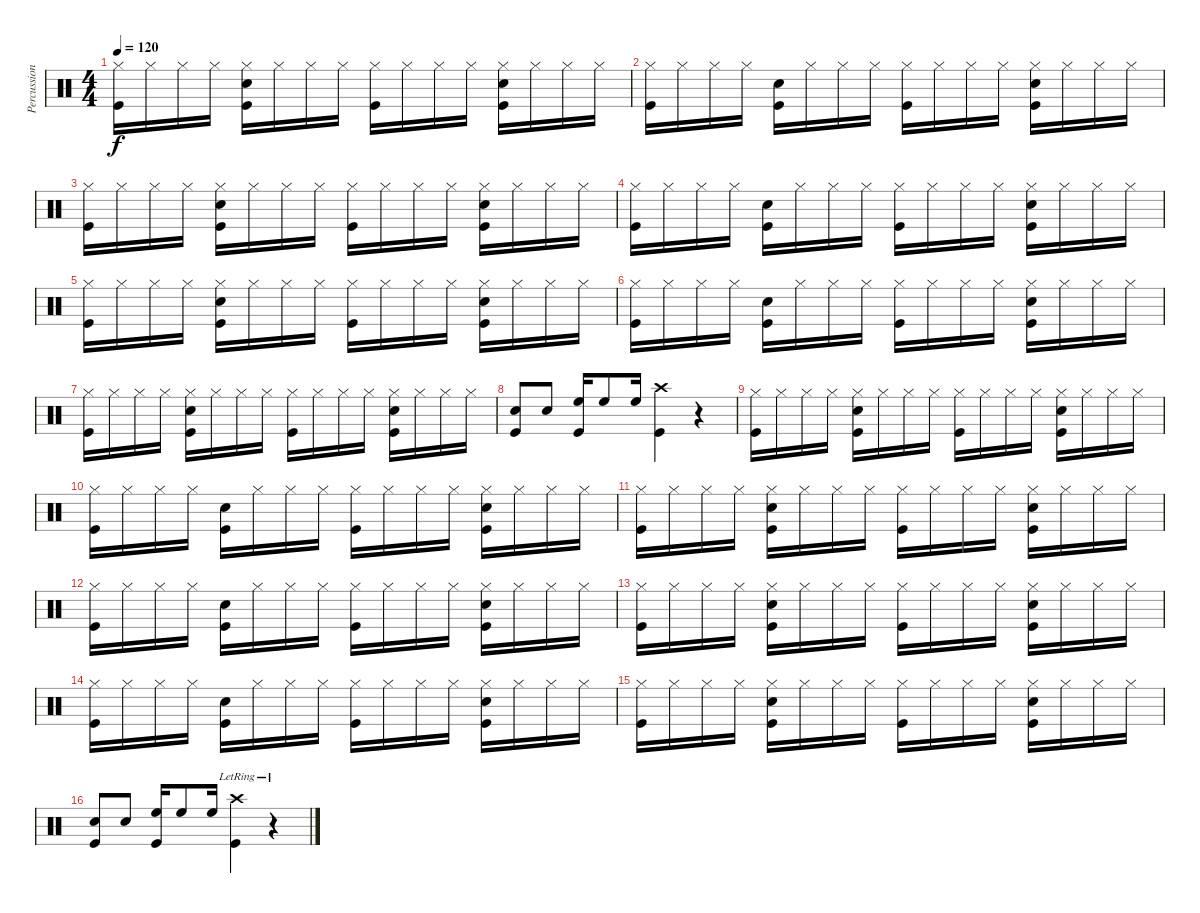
\track ("Percussion" "Percussion") {instrument percussion}
\staff {score}
\articulation defaults
\ts (4 4)
\tempo 120
\clef neutral
\ks c
("Hi-Hat (closed)" "Kick (hit)").16{dy f} "Hi-Hat (closed)".16 "Hi-Hat (closed)".16 "Hi-Hat (closed)".16 ("Hi-Hat (closed)" "Snare (hit) 2" "Kick (hit)").16 "Hi-Hat (closed)".16 "Hi-Hat (closed)".16 "Hi-Hat (closed)".16 ("Hi-Hat (closed)" "Kick (hit)").16 "Hi-Hat (closed)".16 "Hi-Hat (closed)".16 "Hi-Hat (closed)".16 ("Hi-Hat (closed)" "Snare (hit) 2" "Kick (hit)").16 "Hi-Hat (closed)".16 "Hi-Hat (closed)".16 "Hi-Hat (closed)".16 |
("Hi-Hat (closed)" "Kick (hit)").16 "Hi-Hat (closed)".16 "Hi-Hat (closed)".16 "Hi-Hat (closed)".16 ("Snare (hit) 2" "Kick (hit)").16 "Hi-Hat (closed)".16 "Hi-Hat (closed)".16 "Hi-Hat (closed)".16 ("Hi-Hat (closed)" "Kick (hit)").16 "Hi-Hat (closed)".16 "Hi-Hat (closed)".16 "Hi-Hat (closed)".16 ("Hi-Hat (closed)" "Snare (hit) 2" "Kick (hit)").16 "Hi-Hat (closed)".16 "Hi-Hat (closed)".16 "Hi-Hat (closed)".16 |
("Hi-Hat (closed)" "Kick (hit)").16 "Hi-Hat (closed)".16 "Hi-Hat (closed)".16 "Hi-Hat (closed)".16 ("Hi-Hat (closed)" "Snare (hit) 2" "Kick (hit)").16 "Hi-Hat (closed)".16 "Hi-Hat (closed)".16 "Hi-Hat (closed)".16 ("Hi-Hat (closed)" "Kick (hit)").16 "Hi-Hat (closed)".16 "Hi-Hat (closed)".16 "Hi-Hat (closed)".16 ("Hi-Hat (closed)" "Snare (hit) 2" "Kick (hit)").16 "Hi-Hat (closed)".16 "Hi-Hat (closed)".16 "Hi-Hat (closed)".16 |
("Hi-Hat (closed)" "Kick (hit)").16 "Hi-Hat (closed)".16 "Hi-Hat (closed)".16 "Hi-Hat (closed)".16 ("Snare (hit) 2" "Kick (hit)").16 "Hi-Hat (closed)".16 "Hi-Hat (closed)".16 "Hi-Hat (closed)".16 ("Hi-Hat (closed)" "Kick (hit)").16 "Hi-Hat (closed)".16 "Hi-Hat (closed)".16 "Hi-Hat (closed)".16 ("Hi-Hat (closed)" "Snare (hit) 2" "Kick (hit)").16 "Hi-Hat (closed)".16 "Hi-Hat (closed)".16 "Hi-Hat (closed)".16 |
("Hi-Hat (closed)" "Kick (hit)").16 "Hi-Hat (closed)".16 "Hi-Hat (closed)".16 "Hi-Hat (closed)".16 ("Hi-Hat (closed)" "Snare (hit) 2" "Kick (hit)").16 "Hi-Hat (closed)".16 "Hi-Hat (closed)".16 "Hi-Hat (closed)".16 ("Hi-Hat (closed)" "Kick (hit)").16 "Hi-Hat (closed)".16 "Hi-Hat (closed)".16 "Hi-Hat (closed)".16 ("Hi-Hat (closed)" "Snare (hit) 2" "Kick (hit)").16 "Hi-Hat (closed)".16 "Hi-Hat (closed)".16 "Hi-Hat (closed)".16 |
("Hi-Hat (closed)" "Kick (hit)").16 "Hi-Hat (closed)".16 "Hi-Hat (closed)".16 "Hi-Hat (closed)".16 ("Snare (hit) 2" "Kick (hit)").16 "Hi-Hat (closed)".16 "Hi-Hat (closed)".16 "Hi-Hat (closed)".16 ("Hi-Hat (closed)" "Kick (hit)").16 "Hi-Hat (closed)".16 "Hi-Hat (closed)".16 "Hi-Hat (closed)".16 ("Hi-Hat (closed)" "Snare (hit) 2" "Kick (hit)").16 "Hi-Hat (closed)".16 "Hi-Hat (closed)".16 "Hi-Hat (closed)".16 |
("Hi-Hat (closed)" "Kick (hit)").16 "Hi-Hat (closed)".16 "Hi-Hat (closed)".16 "Hi-Hat (closed)".16 ("Hi-Hat (closed)" "Snare (hit) 2" "Kick (hit)").16 "Hi-Hat (closed)".16 "Hi-Hat (closed)".16 "Hi-Hat (closed)".16 ("Hi-Hat (closed)" "Kick (hit)").16 "Hi-Hat (closed)".16 "Hi-Hat (closed)".16 "Hi-Hat (closed)".16 ("Hi-Hat (closed)" "Snare (hit) 2" "Kick (hit)").16 "Hi-Hat (closed)".16 "Hi-Hat (closed)".16 "Hi-Hat (closed)".16 |
("Snare (hit) 2" "Kick (hit)").8 "Snare (hit) 2".8 ("High Floor Tom (hit)" "Kick (hit)").16 "High Floor Tom (hit)".8 "High Floor Tom (hit)".16 ("Crash high (hit)" "Kick (hit)").4 r.4 |
("Hi-Hat (closed)" "Kick (hit)").16 "Hi-Hat (closed)".16 "Hi-Hat (closed)".16 "Hi-Hat (closed)".16 ("Hi-Hat (closed)" "Snare (hit) 2" "Kick (hit)").16 "Hi-Hat (closed)".16 "Hi-Hat (closed)".16 "Hi-Hat (closed)".16 ("Hi-Hat (closed)" "Kick (hit)").16 "Hi-Hat (closed)".16 "Hi-Hat (closed)".16 "Hi-Hat (closed)".16 ("Hi-Hat (closed)" "Snare (hit) 2" "Kick (hit)").16 "Hi-Hat (closed)".16 "Hi-Hat (closed)".16 "Hi-Hat (closed)".16 |
("Hi-Hat (closed)" "Kick (hit)").16 "Hi-Hat (closed)".16 "Hi-Hat (closed)".16 "Hi-Hat (closed)".16 ("Snare (hit) 2" "Kick (hit)").16 "Hi-Hat (closed)".16 "Hi-Hat (closed)".16 "Hi-Hat (closed)".16 ("Hi-Hat (closed)" "Kick (hit)").16 "Hi-Hat (closed)".16 "Hi-Hat (closed)".16 "Hi-Hat (closed)".16 ("Hi-Hat (closed)" "Snare (hit) 2" "Kick (hit)").16 "Hi-Hat (closed)".16 "Hi-Hat (closed)".16 "Hi-Hat (closed)".16 |
("Hi-Hat (closed)" "Kick (hit)").16 "Hi-Hat (closed)".16 "Hi-Hat (closed)".16 "Hi-Hat (closed)".16 ("Hi-Hat (closed)" "Snare (hit) 2" "Kick (hit)").16 "Hi-Hat (closed)".16 "Hi-Hat (closed)".16 "Hi-Hat (closed)".16 ("Hi-Hat (closed)" "Kick (hit)").16 "Hi-Hat (closed)".16 "Hi-Hat (closed)".16 "Hi-Hat (closed)".16 ("Hi-Hat (closed)" "Snare (hit) 2" "Kick (hit)").16 "Hi-Hat (closed)".16 "Hi-Hat (closed)".16 "Hi-Hat (closed)".16 |
("Hi-Hat (closed)" "Kick (hit)").16 "Hi-Hat (closed)".16 "Hi-Hat (closed)".16 "Hi-Hat (closed)".16 ("Snare (hit) 2" "Kick (hit)").16 "Hi-Hat (closed)".16 "Hi-Hat (closed)".16 "Hi-Hat (closed)".16 ("Hi-Hat (closed)" "Kick (hit)").16 "Hi-Hat (closed)".16 "Hi-Hat (closed)".16 "Hi-Hat (closed)".16 ("Hi-Hat (closed)" "Snare (hit) 2" "Kick (hit)").16 "Hi-Hat (closed)".16 "Hi-Hat (closed)".16 "Hi-Hat (closed)".16 |
("Hi-Hat (closed)" "Kick (hit)").16 "Hi-Hat (closed)".16 "Hi-Hat (closed)".16 "Hi-Hat (closed)".16 ("Hi-Hat (closed)" "Snare (hit) 2" "Kick (hit)").16 "Hi-Hat (closed)".16 "Hi-Hat (closed)".16 "Hi-Hat (closed)".16 ("Hi-Hat (closed)" "Kick (hit)").16 "Hi-Hat (closed)".16 "Hi-Hat (closed)".16 "Hi-Hat (closed)".16 ("Hi-Hat (closed)" "Snare (hit) 2" "Kick (hit)").16 "Hi-Hat (closed)".16 "Hi-Hat (closed)".16 "Hi-Hat (closed)".16 |
("Hi-Hat (closed)" "Kick (hit)").16 "Hi-Hat (closed)".16 "Hi-Hat (closed)".16 "Hi-Hat (closed)".16 ("Snare (hit) 2" "Kick (hit)").16 "Hi-Hat (closed)".16 "Hi-Hat (closed)".16 "Hi-Hat (closed)".16 ("Hi-Hat (closed)" "Kick (hit)").16 "Hi-Hat (closed)".16 "Hi-Hat (closed)".16 "Hi-Hat (closed)".16 ("Hi-Hat (closed)" "Snare (hit) 2" "Kick (hit)").16 "Hi-Hat (closed)".16 "Hi-Hat (closed)".16 "Hi-Hat (closed)".16 |
("Hi-Hat (closed)" "Kick (hit)").16 "Hi-Hat (closed)".16 "Hi-Hat (closed)".16 "Hi-Hat (closed)".16 ("Hi-Hat (closed)" "Snare (hit) 2" "Kick (hit)").16 "Hi-Hat (closed)".16 "Hi-Hat (closed)".16 "Hi-Hat (closed)".16 ("Hi-Hat (closed)" "Kick (hit)").16 "Hi-Hat (closed)".16 "Hi-Hat (closed)".16 "Hi-Hat (closed)".16 ("Hi-Hat (closed)" "Snare (hit) 2" "Kick (hit)").16 "Hi-Hat (closed)".16 "Hi-Hat (closed)".16 "Hi-Hat (closed)".16 |
("Snare (hit) 2" "Kick (hit)").8 "Snare (hit) 2".8 ("High Floor Tom (hit)" "Kick (hit)").16 "High Floor Tom (hit)".8 "High Floor Tom (hit)".16 ("Crash high (hit)"{lr} "Kick (hit)").4 r.4
